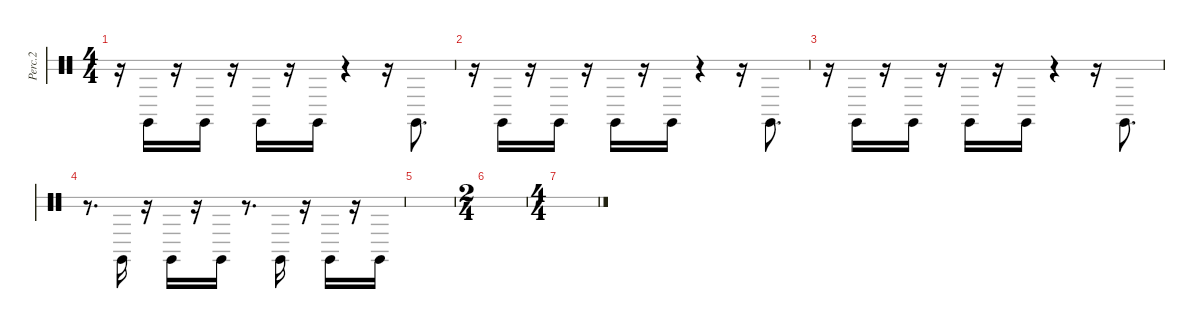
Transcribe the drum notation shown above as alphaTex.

\defaultSystemsLayout 4
\hideDynamics
\bracketExtendMode groupsimilarinstruments
\otherSystemsTrackNameOrientation horizontal
\track ("Percussions 2" "Perc.2") {instrument percussion}
\staff {score 2}
\articulation defaults
\ts (4 4)
\tempo (120 hide)
\clef neutral
\ks c
r.16{dy mf beam Down} "Conga high (hit)".16{beam Down} r.16{beam Down} "Conga high (hit)".16{beam Down} r.16{beam Down} "Conga high (hit)".16{beam Down} r.16{beam Down} "Conga high (hit)".16{beam Down} r.4{beam Down} r.16{beam Down} "Conga high (hit)".8{d beam Down} |
r.16{beam Down} "Conga high (hit)".16{beam Down} r.16{beam Down} "Conga high (hit)".16{beam Down} r.16{beam Down} "Conga high (hit)".16{beam Down} r.16{beam Down} "Conga high (hit)".16{beam Down} r.4{beam Down} r.16{beam Down} "Conga high (hit)".8{d beam Down} |
r.16{beam Down} "Conga high (hit)".16{beam Down} r.16{beam Down} "Conga high (hit)".16{beam Down} r.16{beam Down} "Conga high (hit)".16{beam Down} r.16{beam Down} "Conga high (hit)".16{beam Down} r.4{beam Down} r.16{beam Down} "Conga high (hit)".8{d beam Down} |
r.8{d beam Down} "Conga high (hit)".16{beam Down} r.16{beam Down} "Conga high (hit)".16{beam Down} r.16{beam Down} "Conga high (hit)".16{beam Down} r.8{d beam Down} "Conga high (hit)".16{beam Down} r.16{beam Down} "Conga high (hit)".16{beam Down} r.16{beam Down} "Conga high (hit)".16{beam Down} |
|
\ts (2 4)
|
\ts (4 4)
